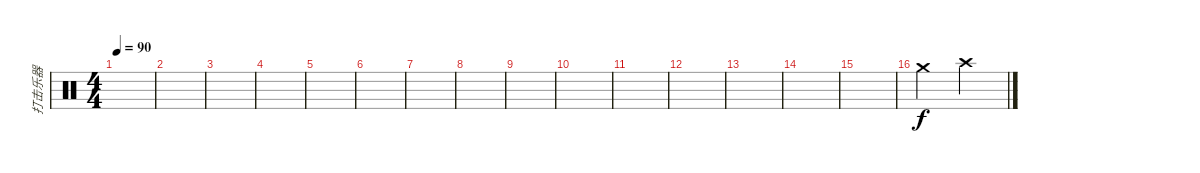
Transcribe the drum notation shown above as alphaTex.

\track ("打击乐器" "打击乐器") {instrument percussion}
\staff {score}
\articulation defaults
\ts (4 4)
\tempo 90
\clef neutral
\ks c
|
|
|
|
|
|
|
|
|
|
|
|
|
|
|
"Crash medium (hit)".2 "Crash high (hit)".2
